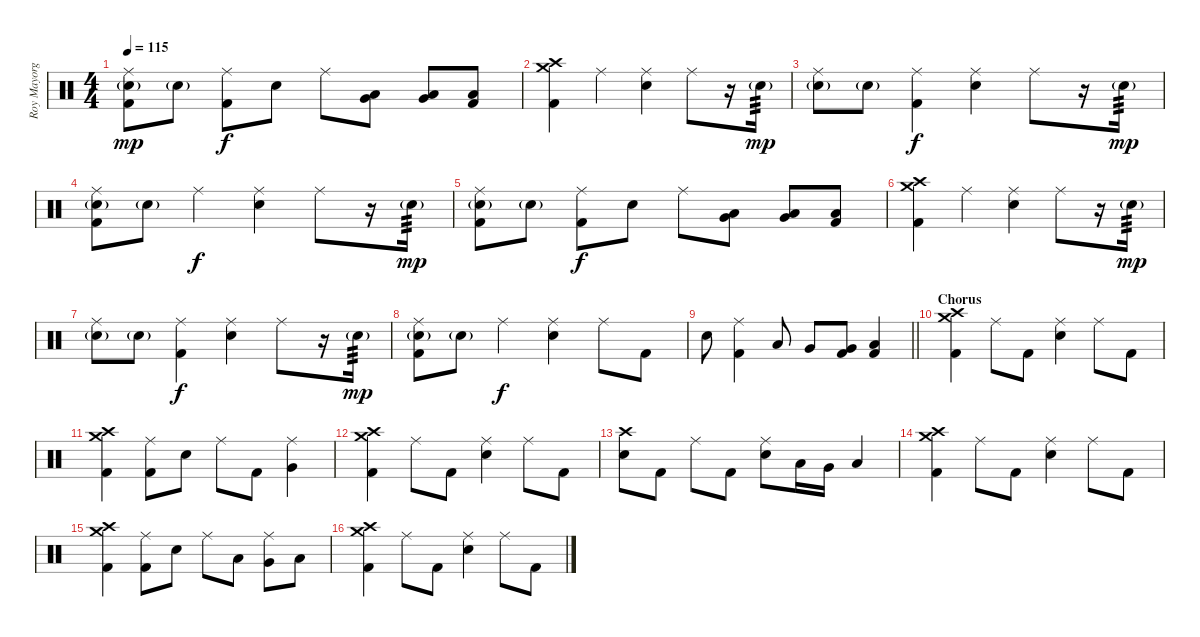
\track ("Roy Mayorga" "Roy Mayorg") {instrument percussion}
\staff {score}
\articulation defaults
\ts (4 4)
\tempo 115
\clef neutral
\ks c
("Ride (middle)" "Electric Snare (hit)"{g} "Kick (hit) 2").8{dy mp} "Electric Snare (hit)"{g}.8 ("Ride (middle)" "Kick (hit) 2").8{dy f} "Electric Snare (hit)".8 "Ride (middle)".8 ("Low Tom (hit)" "Very Low Tom (hit)").8 ("Very Low Tom (hit)" "Low Floor Tom (hit)").8 ("Low Floor Tom (hit)" "Kick (hit) 2").8 |
("Crash high (hit)" "Crash medium (hit)" "Kick (hit) 2").4 "Ride (middle)".4 ("Ride (middle)" "Electric Snare (hit)").4 "Ride (middle)".8 r.16 "Electric Snare (hit)"{g}.16{tp 3 dy mp} |
("Ride (middle)" "Electric Snare (hit)"{g}).8 "Electric Snare (hit)"{g}.8 ("Ride (middle)" "Kick (hit) 2").4{dy f} ("Ride (middle)" "Electric Snare (hit)").4 "Ride (middle)".8 r.16 "Electric Snare (hit)"{g}.16{tp 3 dy mp} |
("Ride (middle)" "Electric Snare (hit)"{g} "Kick (hit) 2").8 "Electric Snare (hit)"{g}.8 "Ride (middle)".4{dy f} ("Ride (middle)" "Electric Snare (hit)").4 "Ride (middle)".8 r.16 "Electric Snare (hit)"{g}.16{tp 3 dy mp} |
("Ride (middle)" "Electric Snare (hit)"{g} "Kick (hit) 2").8 "Electric Snare (hit)"{g}.8 ("Ride (middle)" "Kick (hit) 2").8{dy f} "Electric Snare (hit)".8 "Ride (middle)".8 ("Low Tom (hit)" "Very Low Tom (hit)").8 ("Very Low Tom (hit)" "Low Floor Tom (hit)").8 ("Low Floor Tom (hit)" "Kick (hit) 2").8 |
("Crash high (hit)" "Crash medium (hit)" "Kick (hit) 2").4 "Ride (middle)".4 ("Ride (middle)" "Electric Snare (hit)").4 "Ride (middle)".8 r.16 "Electric Snare (hit)"{g}.16{tp 3 dy mp} |
("Ride (middle)" "Electric Snare (hit)"{g}).8 "Electric Snare (hit)"{g}.8 ("Ride (middle)" "Kick (hit) 2").4{dy f} ("Ride (middle)" "Electric Snare (hit)").4 "Ride (middle)".8 r.16 "Electric Snare (hit)"{g}.16{tp 3 dy mp} |
("Ride (middle)" "Electric Snare (hit)"{g} "Kick (hit) 2").8 "Electric Snare (hit)"{g}.8 "Ride (middle)".4{dy f} ("Ride (middle)" "Electric Snare (hit)").4 "Ride (middle)".8 "Kick (hit) 2".8 |
\barLineRight lightlight "Electric Snare (hit)".8
("Ride (middle)" "Kick (hit) 2").4 "Low Tom (hit)".8 "Very Low Tom (hit)".8 ("Very Low Tom (hit)" "Kick (hit) 2").8 ("Low Floor Tom (hit)" "Kick (hit) 2").4 |
\section ("" "Chorus")
("Crash high (hit)" "Crash medium (hit)" "Kick (hit) 2").4 "Ride (middle)".8 "Kick (hit) 2".8 ("Ride (middle)" "Electric Snare (hit)").4 "Ride (middle)".8 "Kick (hit) 2".8 |
("Crash high (hit)" "Crash medium (hit)" "Kick (hit) 2").4 ("Ride (middle)" "Kick (hit) 2").8 "Electric Snare (hit)".8 "Ride (middle)".8 "Kick (hit) 2".8 ("Ride (middle)" "Very Low Tom (hit)").4 |
("Crash high (hit)" "Crash medium (hit)" "Kick (hit) 2").4 "Ride (middle)".8 "Kick (hit) 2".8 ("Ride (middle)" "Electric Snare (hit)").4 "Ride (middle)".8 "Kick (hit) 2".8 |
("Crash high (hit)" "Electric Snare (hit)").8 "Kick (hit) 2".8 "Ride (middle)".8 "Kick (hit) 2".8 ("Ride (middle)" "Electric Snare (hit)").8 "Low Tom (hit)".16 "Very Low Tom (hit)".16 "Low Floor Tom (hit)".4 |
("Crash high (hit)" "Crash medium (hit)" "Kick (hit) 2").4 "Ride (middle)".8 "Kick (hit) 2".8 ("Ride (middle)" "Electric Snare (hit)").4 "Ride (middle)".8 "Kick (hit) 2".8 |
("Crash high (hit)" "Crash medium (hit)" "Kick (hit) 2").4 ("Ride (middle)" "Kick (hit) 2").8 "Electric Snare (hit)".8 "Ride (middle)".8 "Low Tom (hit)".8 ("Ride (middle)" "Very Low Tom (hit)").8 "Low Floor Tom (hit)".8 |
("Crash high (hit)" "Crash medium (hit)" "Kick (hit) 2").4 "Ride (middle)".8 "Kick (hit) 2".8 ("Ride (middle)" "Electric Snare (hit)").4 "Ride (middle)".8 "Kick (hit) 2".8
